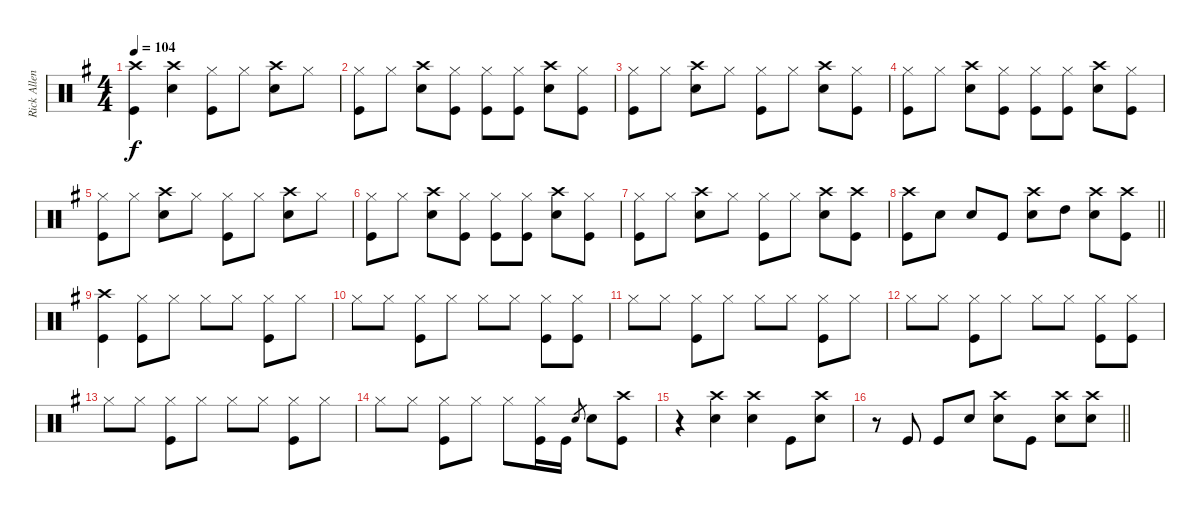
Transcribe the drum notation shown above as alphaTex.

\track ("Rick Allen" "Rick Allen") {instrument percussion}
\staff {score}
\articulation defaults
\ts (4 4)
\tempo 104
\clef neutral
\ks eminor
("Crash high (hit)" "Kick (hit)").4{dy f} ("Crash high (hit)" "Snare (hit) 2").4 ("Hi-Hat (closed)" "Kick (hit)").8 "Hi-Hat (closed)".8 ("Crash high (hit)" "Snare (hit) 2").8 "Hi-Hat (closed)".8 |
("Hi-Hat (closed)" "Kick (hit)").8 "Hi-Hat (closed)".8 ("Crash high (hit)" "Snare (hit) 2").8 ("Hi-Hat (closed)" "Kick (hit)").8 ("Hi-Hat (closed)" "Kick (hit)").8 ("Hi-Hat (closed)" "Kick (hit)").8 ("Crash high (hit)" "Snare (hit) 2").8 ("Hi-Hat (closed)" "Kick (hit)").8 |
("Hi-Hat (closed)" "Kick (hit)").8 "Hi-Hat (closed)".8 ("Crash high (hit)" "Snare (hit) 2").8 "Hi-Hat (closed)".8 ("Hi-Hat (closed)" "Kick (hit)").8 "Hi-Hat (closed)".8 ("Crash high (hit)" "Snare (hit) 2").8 ("Hi-Hat (closed)" "Kick (hit)").8 |
("Hi-Hat (closed)" "Kick (hit)").8 "Hi-Hat (closed)".8 ("Crash high (hit)" "Snare (hit) 2").8 ("Hi-Hat (closed)" "Kick (hit)").8 ("Hi-Hat (closed)" "Kick (hit)").8 ("Hi-Hat (closed)" "Kick (hit)").8 ("Crash high (hit)" "Snare (hit) 2").8 ("Hi-Hat (closed)" "Kick (hit)").8 |
("Hi-Hat (closed)" "Kick (hit)").8 "Hi-Hat (closed)".8 ("Crash high (hit)" "Snare (hit) 2").8 "Hi-Hat (closed)".8 ("Hi-Hat (closed)" "Kick (hit)").8 "Hi-Hat (closed)".8 ("Crash high (hit)" "Snare (hit) 2").8 "Hi-Hat (closed)".8 |
("Hi-Hat (closed)" "Kick (hit)").8 "Hi-Hat (closed)".8 ("Crash high (hit)" "Snare (hit) 2").8 ("Hi-Hat (closed)" "Kick (hit)").8 ("Hi-Hat (closed)" "Kick (hit)").8 ("Hi-Hat (closed)" "Kick (hit)").8 ("Crash high (hit)" "Snare (hit) 2").8 ("Hi-Hat (closed)" "Kick (hit)").8 |
("Hi-Hat (closed)" "Kick (hit)").8 "Hi-Hat (closed)".8 ("Crash high (hit)" "Snare (hit) 2").8 "Hi-Hat (closed)".8 ("Hi-Hat (closed)" "Kick (hit)").8 "Hi-Hat (closed)".8 ("Crash high (hit)" "Snare (hit) 2").8 ("Crash high (hit)" "Kick (hit)").8 |
\barLineRight lightlight
("Crash high (hit)" "Kick (hit)").8 "Snare (hit) 2".8 "Snare (hit) 2".8 "Kick (hit)".8 ("Crash high (hit)" "Snare (hit) 2").8 "High Tom (hit)".8 ("Crash high (hit)" "Snare (hit) 2").8 ("Crash high (hit)" "Kick (hit)").8 |
("Crash high (hit)" "Kick (hit)").4 ("Hi-Hat (closed)" "Kick (hit)").8 "Hi-Hat (closed)".8 "Hi-Hat (closed)".8 "Hi-Hat (closed)".8 ("Hi-Hat (closed)" "Kick (hit)").8 "Hi-Hat (closed)".8 |
"Hi-Hat (closed)".8 "Hi-Hat (closed)".8 ("Hi-Hat (closed)" "Kick (hit)").8 "Hi-Hat (closed)".8 "Hi-Hat (closed)".8 "Hi-Hat (closed)".8 ("Hi-Hat (closed)" "Kick (hit)").8 ("Hi-Hat (closed)" "Kick (hit)").8 |
"Hi-Hat (closed)".8 "Hi-Hat (closed)".8 ("Hi-Hat (closed)" "Kick (hit)").8 "Hi-Hat (closed)".8 "Hi-Hat (closed)".8 "Hi-Hat (closed)".8 ("Hi-Hat (closed)" "Kick (hit)").8 "Hi-Hat (closed)".8 |
"Hi-Hat (closed)".8 "Hi-Hat (closed)".8 ("Hi-Hat (closed)" "Kick (hit)").8 "Hi-Hat (closed)".8 "Hi-Hat (closed)".8 "Hi-Hat (closed)".8 ("Hi-Hat (closed)" "Kick (hit)").8 ("Hi-Hat (closed)" "Kick (hit)").8 |
"Hi-Hat (closed)".8 "Hi-Hat (closed)".8 ("Hi-Hat (closed)" "Kick (hit)").8 "Hi-Hat (closed)".8 "Hi-Hat (closed)".8 "Hi-Hat (closed)".8 ("Hi-Hat (closed)" "Kick (hit)").8 "Hi-Hat (closed)".8 |
"Hi-Hat (closed)".8 "Hi-Hat (closed)".8 ("Hi-Hat (closed)" "Kick (hit)").8 "Hi-Hat (closed)".8 "Hi-Hat (closed)".8 ("Hi-Hat (closed)" "Kick (hit)").16 "Kick (hit)".16 "Snare (hit) 2".8{gr} "Snare (hit) 2".8 ("Crash high (hit)" "Kick (hit)").8 |
r.4 ("Crash high (hit)" "Snare (hit) 2").4 ("Crash high (hit)" "Snare (hit) 2").4 "Kick (hit)".8 ("Crash high (hit)" "Snare (hit) 2").8 |
\barLineRight lightlight
r.8 "Kick (hit)".8 "Kick (hit)".8 "Snare (hit) 2".8 ("Crash high (hit)" "Snare (hit) 2").8 "Kick (hit)".8 ("Crash high (hit)" "Snare (hit) 2").8 ("Crash high (hit)" "Snare (hit) 2").8
